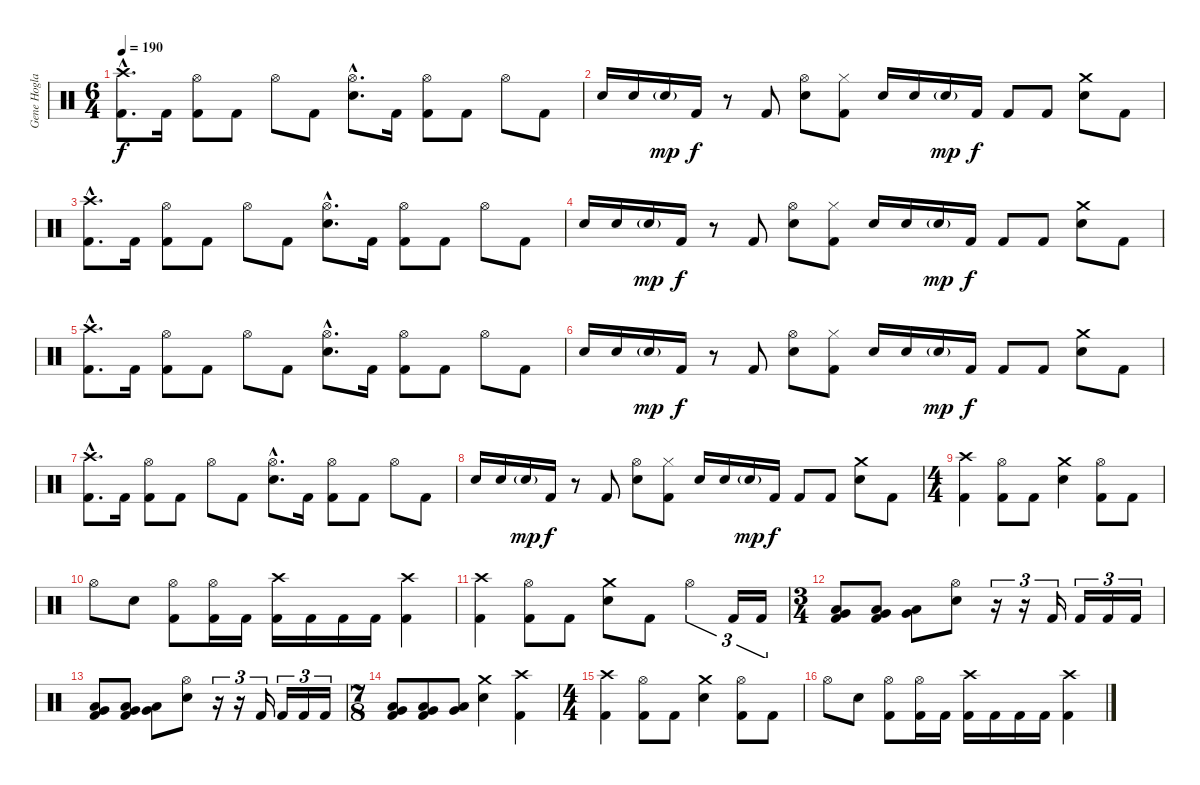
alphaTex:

\track ("Gene Hoglan" "Gene Hogla") {instrument percussion}
\staff {score}
\articulation defaults
\ts (6 4)
\tempo 190
\clef neutral
\ks c
("Crash high (hit)"{hac} "Kick (hit) 2"{hac}).8{d dy f} "Kick (hit) 2".16 ("Hi-Hat (open)" "Kick (hit) 2").8 "Kick (hit) 2".8 "Hi-Hat (open)".8 "Kick (hit) 2".8 ("Hi-Hat (open)"{hac} "Electric Snare (hit)"{hac}).8{d} "Kick (hit) 2".16 ("Hi-Hat (open)" "Kick (hit) 2").8 "Kick (hit) 2".8 "Hi-Hat (open)".8 "Kick (hit) 2".8 |
"Electric Snare (hit)".16 "Electric Snare (hit)".16 "Electric Snare (hit)"{g}.16{dy mp} "Kick (hit) 2".16{dy f} r.8 "Kick (hit) 2".8 ("Hi-Hat (open)" "Electric Snare (hit)").8 ("Hi-Hat (closed)" "Kick (hit) 2").8 "Electric Snare (hit)".16 "Electric Snare (hit)".16 "Electric Snare (hit)"{g}.16{dy mp} "Kick (hit) 2".16{dy f} "Kick (hit) 2".8 "Kick (hit) 2".8 ("Crash medium (hit)" "Electric Snare (hit)").8 "Kick (hit) 2".8 |
("Crash high (hit)"{hac} "Kick (hit) 2"{hac}).8{d} "Kick (hit) 2".16 ("Hi-Hat (open)" "Kick (hit) 2").8 "Kick (hit) 2".8 "Hi-Hat (open)".8 "Kick (hit) 2".8 ("Hi-Hat (open)"{hac} "Electric Snare (hit)"{hac}).8{d} "Kick (hit) 2".16 ("Hi-Hat (open)" "Kick (hit) 2").8 "Kick (hit) 2".8 "Hi-Hat (open)".8 "Kick (hit) 2".8 |
"Electric Snare (hit)".16 "Electric Snare (hit)".16 "Electric Snare (hit)"{g}.16{dy mp} "Kick (hit) 2".16{dy f} r.8 "Kick (hit) 2".8 ("Hi-Hat (open)" "Electric Snare (hit)").8 ("Hi-Hat (closed)" "Kick (hit) 2").8 "Electric Snare (hit)".16 "Electric Snare (hit)".16 "Electric Snare (hit)"{g}.16{dy mp} "Kick (hit) 2".16{dy f} "Kick (hit) 2".8 "Kick (hit) 2".8 ("Crash medium (hit)" "Electric Snare (hit)").8 "Kick (hit) 2".8 |
("Crash high (hit)"{hac} "Kick (hit) 2"{hac}).8{d} "Kick (hit) 2".16 ("Hi-Hat (open)" "Kick (hit) 2").8 "Kick (hit) 2".8 "Hi-Hat (open)".8 "Kick (hit) 2".8 ("Hi-Hat (open)"{hac} "Electric Snare (hit)"{hac}).8{d} "Kick (hit) 2".16 ("Hi-Hat (open)" "Kick (hit) 2").8 "Kick (hit) 2".8 "Hi-Hat (open)".8 "Kick (hit) 2".8 |
"Electric Snare (hit)".16 "Electric Snare (hit)".16 "Electric Snare (hit)"{g}.16{dy mp} "Kick (hit) 2".16{dy f} r.8 "Kick (hit) 2".8 ("Hi-Hat (open)" "Electric Snare (hit)").8 ("Hi-Hat (closed)" "Kick (hit) 2").8 "Electric Snare (hit)".16 "Electric Snare (hit)".16 "Electric Snare (hit)"{g}.16{dy mp} "Kick (hit) 2".16{dy f} "Kick (hit) 2".8 "Kick (hit) 2".8 ("Crash medium (hit)" "Electric Snare (hit)").8 "Kick (hit) 2".8 |
("Crash high (hit)"{hac} "Kick (hit) 2"{hac}).8{d} "Kick (hit) 2".16 ("Hi-Hat (open)" "Kick (hit) 2").8 "Kick (hit) 2".8 "Hi-Hat (open)".8 "Kick (hit) 2".8 ("Hi-Hat (open)"{hac} "Electric Snare (hit)"{hac}).8{d} "Kick (hit) 2".16 ("Hi-Hat (open)" "Kick (hit) 2").8 "Kick (hit) 2".8 "Hi-Hat (open)".8 "Kick (hit) 2".8 |
"Electric Snare (hit)".16 "Electric Snare (hit)".16 "Electric Snare (hit)"{g}.16{dy mp} "Kick (hit) 2".16{dy f} r.8 "Kick (hit) 2".8 ("Hi-Hat (open)" "Electric Snare (hit)").8 ("Hi-Hat (closed)" "Kick (hit) 2").8 "Electric Snare (hit)".16 "Electric Snare (hit)".16 "Electric Snare (hit)"{g}.16{dy mp} "Kick (hit) 2".16{dy f} "Kick (hit) 2".8 "Kick (hit) 2".8 ("Crash medium (hit)" "Electric Snare (hit)").8 "Kick (hit) 2".8 |
\ts (4 4)
("Crash high (hit)" "Kick (hit) 2").4 ("Hi-Hat (open)" "Kick (hit) 2").8 "Kick (hit) 2".8 ("Crash medium (hit)" "Electric Snare (hit)").4 ("Hi-Hat (open)" "Kick (hit) 2").8 "Kick (hit) 2".8 |
"Hi-Hat (open)".8 "Electric Snare (hit)".8 ("Hi-Hat (open)" "Kick (hit) 2").8 ("Hi-Hat (open)" "Kick (hit) 2").16 "Kick (hit) 2".16 ("Crash high (hit)" "Kick (hit) 2").16 "Kick (hit) 2".16 "Kick (hit) 2".16 "Kick (hit) 2".16 ("Crash high (hit)" "Kick (hit) 2").4 |
("Crash high (hit)" "Kick (hit) 2").4 ("Hi-Hat (open)" "Kick (hit) 2").8 "Kick (hit) 2".8 ("Crash medium (hit)" "Electric Snare (hit)").8 "Kick (hit) 2".8 "Hi-Hat (open)".4{tu (3 2)} "Kick (hit) 2".16{tu (3 2)} "Kick (hit) 2".16{tu (3 2)} |
\ts (3 4)
("Low Tom (hit)" "Very Low Tom (hit)" "Kick (hit) 2").8 ("Low Tom (hit)" "Very Low Tom (hit)" "Kick (hit) 2").8 ("Very Low Tom (hit)" "Low Floor Tom (hit)").8 ("Hi-Hat (open)" "Electric Snare (hit)").8 r.16{tu (3 2)} r.16{tu (3 2)} "Kick (hit) 2".16{tu (3 2)} "Kick (hit) 2".16{tu (3 2)} "Kick (hit) 2".16{tu (3 2)} "Kick (hit) 2".16{tu (3 2)} |
("Low Tom (hit)" "Very Low Tom (hit)" "Kick (hit) 2").8 ("Low Tom (hit)" "Very Low Tom (hit)" "Kick (hit) 2").8 ("Very Low Tom (hit)" "Low Floor Tom (hit)").8 ("Hi-Hat (open)" "Electric Snare (hit)").8 r.16{tu (3 2)} r.16{tu (3 2)} "Kick (hit) 2".16{tu (3 2)} "Kick (hit) 2".16{tu (3 2)} "Kick (hit) 2".16{tu (3 2)} "Kick (hit) 2".16{tu (3 2)} |
\ts (7 8)
("Low Tom (hit)" "Very Low Tom (hit)" "Kick (hit) 2").8 ("Low Tom (hit)" "Very Low Tom (hit)" "Kick (hit) 2").8 ("Very Low Tom (hit)" "Low Floor Tom (hit)").8 ("Crash medium (hit)" "Electric Snare (hit)").4 ("Crash high (hit)" "Kick (hit) 2").4 |
\ts (4 4)
("Crash high (hit)" "Kick (hit) 2").4 ("Hi-Hat (open)" "Kick (hit) 2").8 "Kick (hit) 2".8 ("Crash medium (hit)" "Electric Snare (hit)").4 ("Hi-Hat (open)" "Kick (hit) 2").8 "Kick (hit) 2".8 |
"Hi-Hat (open)".8 "Electric Snare (hit)".8 ("Hi-Hat (open)" "Kick (hit) 2").8 ("Hi-Hat (open)" "Kick (hit) 2").16 "Kick (hit) 2".16 ("Crash high (hit)" "Kick (hit) 2").16 "Kick (hit) 2".16 "Kick (hit) 2".16 "Kick (hit) 2".16 ("Crash high (hit)" "Kick (hit) 2").4
